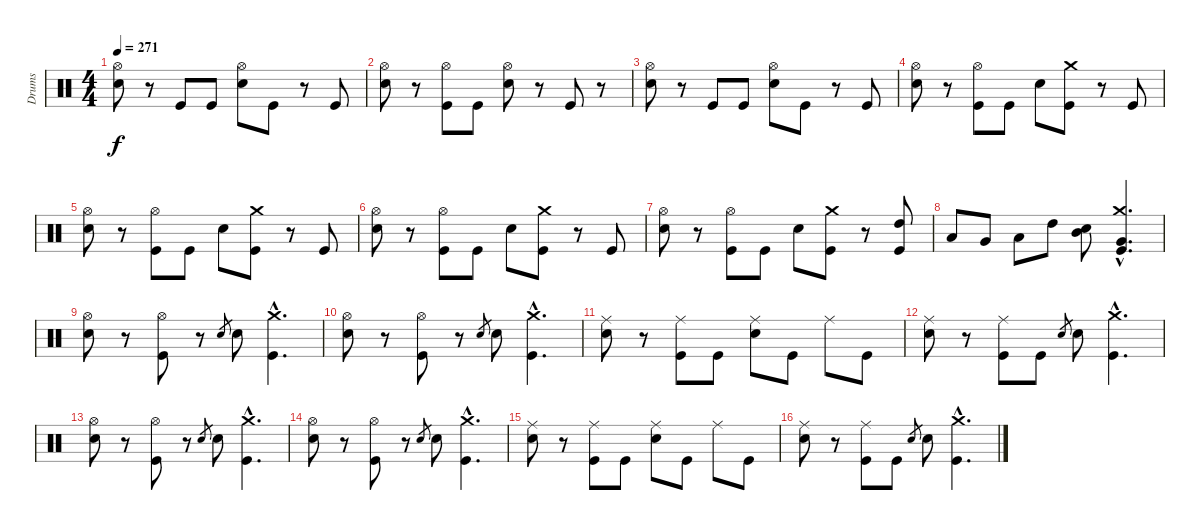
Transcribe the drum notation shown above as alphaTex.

\track ("Drums" "Drums") {instrument percussion}
\staff {score}
\articulation defaults
\ts (4 4)
\tempo 271
\clef neutral
\ks c
("Hi-Hat (open)" "Electric Snare (hit)").8{dy f} r.8 "Kick (hit)".8 "Kick (hit)".8 ("Hi-Hat (open)" "Electric Snare (hit)").8 "Kick (hit)".8 r.8 "Kick (hit)".8 |
("Hi-Hat (open)" "Electric Snare (hit)").8 r.8 ("Hi-Hat (open)" "Kick (hit)").8 "Kick (hit)".8 ("Hi-Hat (open)" "Electric Snare (hit)").8 r.8 "Kick (hit)".8 r.8 |
("Hi-Hat (open)" "Electric Snare (hit)").8 r.8 "Kick (hit)".8 "Kick (hit)".8 ("Hi-Hat (open)" "Electric Snare (hit)").8 "Kick (hit)".8 r.8 "Kick (hit)".8 |
("Hi-Hat (open)" "Electric Snare (hit)").8 r.8 ("Hi-Hat (open)" "Kick (hit)").8 "Kick (hit)".8 "Electric Snare (hit)".8 ("Crash medium (hit)" "Kick (hit)").8 r.8 "Kick (hit)".8 |
("Hi-Hat (open)" "Electric Snare (hit)").8 r.8 ("Hi-Hat (open)" "Kick (hit)").8 "Kick (hit)".8 "Electric Snare (hit)".8 ("Crash medium (hit)" "Kick (hit)").8 r.8 "Kick (hit)".8 |
("Hi-Hat (open)" "Electric Snare (hit)").8 r.8 ("Hi-Hat (open)" "Kick (hit)").8 "Kick (hit)".8 "Electric Snare (hit)".8 ("Crash medium (hit)" "Kick (hit)").8 r.8 "Kick (hit)".8 |
("Hi-Hat (open)" "Electric Snare (hit)").8 r.8 ("Hi-Hat (open)" "Kick (hit)").8 "Kick (hit)".8 "Electric Snare (hit)".8 ("Crash medium (hit)" "Kick (hit)").8 r.8 ("High Tom (hit)" "Kick (hit)").8 |
"Low Tom (hit)".8 "Very Low Tom (hit)".8 "Low Floor Tom (hit)".8 "High Tom (hit)".8 ("Mid Tom (hit)" "Electric Snare (hit)").8 ("Crash medium (hit)"{hac} "Very Low Tom (hit)"{hac} "Kick (hit)"{hac}).4{d} |
("Hi-Hat (open)" "Electric Snare (hit)").8 r.8 ("Hi-Hat (open)" "Kick (hit)").8 r.8 "Electric Snare (hit)".8{gr} "Electric Snare (hit)".8 ("Crash medium (hit)"{hac} "Kick (hit)"{hac}).4{d} |
("Hi-Hat (open)" "Electric Snare (hit)").8 r.8 ("Hi-Hat (open)" "Kick (hit)").8 r.8 "Electric Snare (hit)".8{gr} "Electric Snare (hit)".8 ("Crash medium (hit)"{hac} "Kick (hit)"{hac}).4{d} |
("Ride (middle)" "Electric Snare (hit)").8 r.8 ("Ride (middle)" "Kick (hit)").8 "Kick (hit)".8 ("Ride (middle)" "Electric Snare (hit)").8 "Kick (hit)".8 "Ride (middle)".8 "Kick (hit)".8 |
("Ride (middle)" "Electric Snare (hit)").8 r.8 ("Ride (middle)" "Kick (hit)").8 "Kick (hit)".8 "Electric Snare (hit)".8{gr} "Electric Snare (hit)".8 ("Crash medium (hit)"{hac} "Kick (hit)"{hac}).4{d} |
("Hi-Hat (open)" "Electric Snare (hit)").8 r.8 ("Hi-Hat (open)" "Kick (hit)").8 r.8 "Electric Snare (hit)".8{gr} "Electric Snare (hit)".8 ("Crash medium (hit)"{hac} "Kick (hit)"{hac}).4{d} |
("Hi-Hat (open)" "Electric Snare (hit)").8 r.8 ("Hi-Hat (open)" "Kick (hit)").8 r.8 "Electric Snare (hit)".8{gr} "Electric Snare (hit)".8 ("Crash medium (hit)"{hac} "Kick (hit)"{hac}).4{d} |
("Ride (middle)" "Electric Snare (hit)").8 r.8 ("Ride (middle)" "Kick (hit)").8 "Kick (hit)".8 ("Ride (middle)" "Electric Snare (hit)").8 "Kick (hit)".8 "Ride (middle)".8 "Kick (hit)".8 |
("Ride (middle)" "Electric Snare (hit)").8 r.8 ("Ride (middle)" "Kick (hit)").8 "Kick (hit)".8 "Electric Snare (hit)".8{gr} "Electric Snare (hit)".8 ("Crash medium (hit)"{hac} "Kick (hit)"{hac}).4{d}
